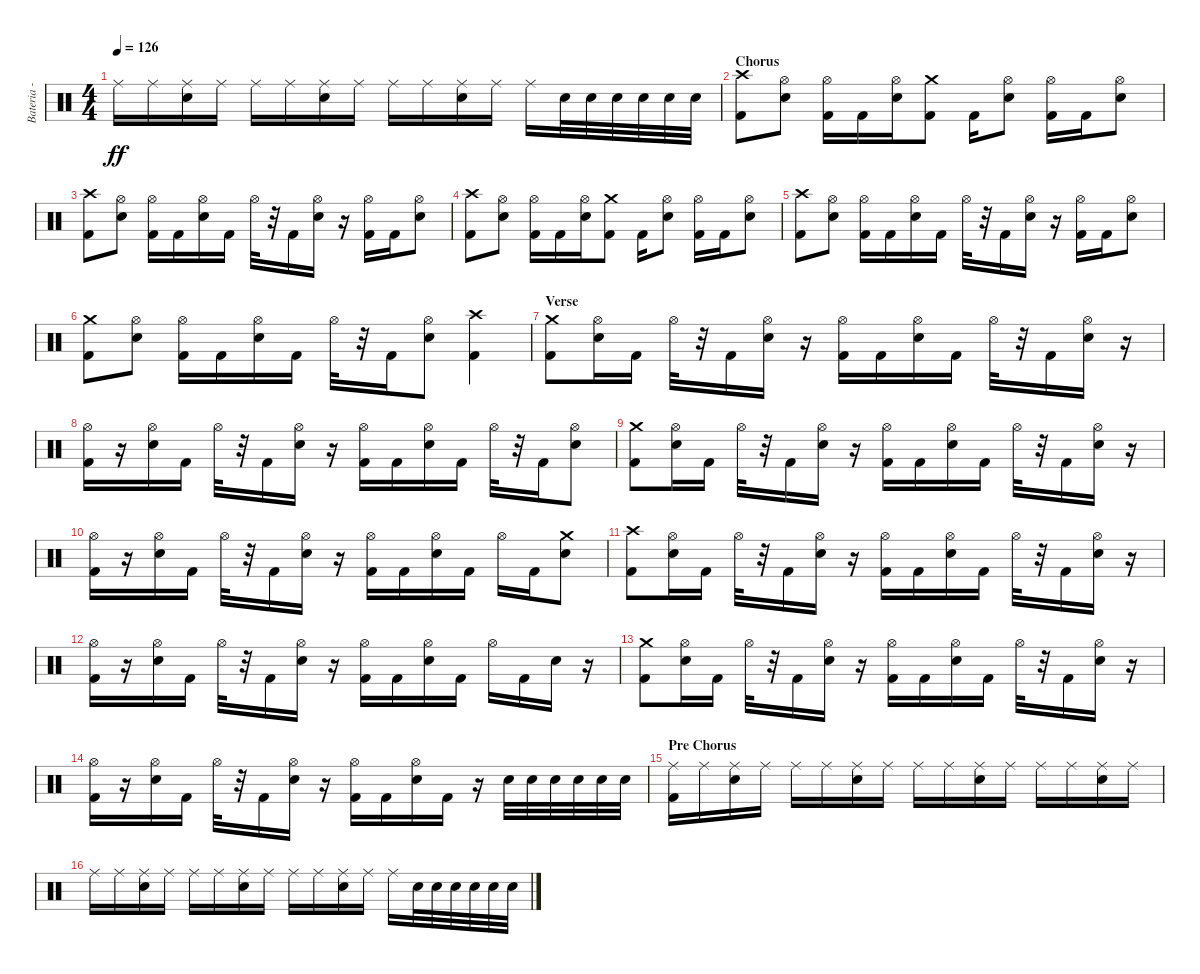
\track ("Bateria - Larzon" "Bateria - ") {instrument percussion}
\staff {score}
\articulation defaults
\ts (4 4)
\tempo 126
\clef neutral
\ks c "Ride (middle)".16{dy ff} "Ride (middle)".16
("Electric Snare (hit)" "Ride (middle)").16 "Ride (middle)".16 "Ride (middle)".16 "Ride (middle)".16 ("Electric Snare (hit)" "Ride (middle)").16 "Ride (middle)".16 "Ride (middle)".16 "Ride (middle)".16 ("Electric Snare (hit)" "Ride (middle)").16 "Ride (middle)".16 "Ride (middle)".16 "Electric Snare (hit)".32 "Electric Snare (hit)".32 "Electric Snare (hit)".32 "Electric Snare (hit)".32 "Electric Snare (hit)".32 "Electric Snare (hit)".32 |
\section ("" "Chorus")
("Kick (hit) 2" "Crash high (hit)").8 ("Electric Snare (hit)" "Hi-Hat (open)").8 ("Kick (hit) 2" "Hi-Hat (open)").16 "Kick (hit) 2".16 ("Electric Snare (hit)" "Hi-Hat (open)").16 ("Kick (hit) 2" "Crash medium (hit)").8 "Kick (hit) 2".16 ("Electric Snare (hit)" "Hi-Hat (open)").8 ("Kick (hit) 2" "Hi-Hat (open)").16 "Kick (hit) 2".16 ("Electric Snare (hit)" "Hi-Hat (open)").8 |
("Kick (hit) 2" "Crash high (hit)").8 ("Electric Snare (hit)" "Hi-Hat (open)").8 ("Kick (hit) 2" "Hi-Hat (open)").16 "Kick (hit) 2".16 ("Electric Snare (hit)" "Hi-Hat (open)").16 "Kick (hit) 2".16 "Hi-Hat (open)".32 r.32 "Kick (hit) 2".16 ("Electric Snare (hit)" "Hi-Hat (open)").16 r.16 ("Kick (hit) 2" "Hi-Hat (open)").16 "Kick (hit) 2".16 ("Electric Snare (hit)" "Hi-Hat (open)").8 |
("Kick (hit) 2" "Crash high (hit)").8 ("Electric Snare (hit)" "Hi-Hat (open)").8 ("Kick (hit) 2" "Hi-Hat (open)").16 "Kick (hit) 2".16 ("Electric Snare (hit)" "Hi-Hat (open)").16 ("Kick (hit) 2" "Crash medium (hit)").8 "Kick (hit) 2".16 ("Electric Snare (hit)" "Hi-Hat (open)").8 ("Kick (hit) 2" "Hi-Hat (open)").16 "Kick (hit) 2".16 ("Electric Snare (hit)" "Hi-Hat (open)").8 |
("Kick (hit) 2" "Crash high (hit)").8 ("Electric Snare (hit)" "Hi-Hat (open)").8 ("Kick (hit) 2" "Hi-Hat (open)").16 "Kick (hit) 2".16 ("Electric Snare (hit)" "Hi-Hat (open)").16 "Kick (hit) 2".16 "Hi-Hat (open)".32 r.32 "Kick (hit) 2".16 ("Electric Snare (hit)" "Hi-Hat (open)").16 r.16 ("Kick (hit) 2" "Hi-Hat (open)").16 "Kick (hit) 2".16 ("Electric Snare (hit)" "Hi-Hat (open)").8 |
("Kick (hit) 2" "Crash medium (hit)").8 ("Electric Snare (hit)" "Hi-Hat (open)").8 ("Kick (hit) 2" "Hi-Hat (open)").16 "Kick (hit) 2".16 ("Electric Snare (hit)" "Hi-Hat (open)").16 "Kick (hit) 2".16 "Hi-Hat (open)".32 r.32 "Kick (hit) 2".16 ("Electric Snare (hit)" "Hi-Hat (open)").8 ("Kick (hit) 2" "Crash high (hit)").4 |
\section ("" "Verse")
("Kick (hit) 2" "Crash medium (hit)").8 ("Electric Snare (hit)" "Hi-Hat (open)").16 "Kick (hit) 2".16 "Hi-Hat (open)".32 r.32 "Kick (hit) 2".16 ("Electric Snare (hit)" "Hi-Hat (open)").16 r.16 ("Kick (hit) 2" "Hi-Hat (open)").16 "Kick (hit) 2".16 ("Electric Snare (hit)" "Hi-Hat (open)").16 "Kick (hit) 2".16 "Hi-Hat (open)".32 r.32 "Kick (hit) 2".16 ("Electric Snare (hit)" "Hi-Hat (open)").16 r.16 |
("Kick (hit) 2" "Hi-Hat (open)").16 r.16 ("Electric Snare (hit)" "Hi-Hat (open)").16 "Kick (hit) 2".16 "Hi-Hat (open)".32 r.32 "Kick (hit) 2".16 ("Electric Snare (hit)" "Hi-Hat (open)").16 r.16 ("Kick (hit) 2" "Hi-Hat (open)").16 "Kick (hit) 2".16 ("Electric Snare (hit)" "Hi-Hat (open)").16 "Kick (hit) 2".16 "Hi-Hat (open)".32 r.32 "Kick (hit) 2".16 ("Electric Snare (hit)" "Hi-Hat (open)").8 |
("Kick (hit) 2" "Crash medium (hit)").8 ("Electric Snare (hit)" "Hi-Hat (open)").16 "Kick (hit) 2".16 "Hi-Hat (open)".32 r.32 "Kick (hit) 2".16 ("Electric Snare (hit)" "Hi-Hat (open)").16 r.16 ("Kick (hit) 2" "Hi-Hat (open)").16 "Kick (hit) 2".16 ("Electric Snare (hit)" "Hi-Hat (open)").16 "Kick (hit) 2".16 "Hi-Hat (open)".32 r.32 "Kick (hit) 2".16 ("Electric Snare (hit)" "Hi-Hat (open)").16 r.16 |
("Kick (hit) 2" "Hi-Hat (open)").16 r.16 ("Electric Snare (hit)" "Hi-Hat (open)").16 "Kick (hit) 2".16 "Hi-Hat (open)".32 r.32 "Kick (hit) 2".16 ("Electric Snare (hit)" "Hi-Hat (open)").16 r.16 ("Kick (hit) 2" "Hi-Hat (open)").16 "Kick (hit) 2".16 ("Electric Snare (hit)" "Hi-Hat (open)").16 "Kick (hit) 2".16 "Hi-Hat (open)".16 "Kick (hit) 2".16 ("Electric Snare (hit)" "Crash medium (hit)").8 |
("Crash high (hit)" "Kick (hit) 2").8 ("Electric Snare (hit)" "Hi-Hat (open)").16 "Kick (hit) 2".16 "Hi-Hat (open)".32 r.32 "Kick (hit) 2".16 ("Electric Snare (hit)" "Hi-Hat (open)").16 r.16 ("Kick (hit) 2" "Hi-Hat (open)").16 "Kick (hit) 2".16 ("Electric Snare (hit)" "Hi-Hat (open)").16 "Kick (hit) 2".16 "Hi-Hat (open)".32 r.32 "Kick (hit) 2".16 ("Electric Snare (hit)" "Hi-Hat (open)").16 r.16 |
("Kick (hit) 2" "Hi-Hat (open)").16 r.16 ("Electric Snare (hit)" "Hi-Hat (open)").16 "Kick (hit) 2".16 "Hi-Hat (open)".32 r.32 "Kick (hit) 2".16 ("Electric Snare (hit)" "Hi-Hat (open)").16 r.16 ("Kick (hit) 2" "Hi-Hat (open)").16 "Kick (hit) 2".16 ("Electric Snare (hit)" "Hi-Hat (open)").16 "Kick (hit) 2".16 "Hi-Hat (open)".16 "Kick (hit) 2".16 "Electric Snare (hit)".16 r.16 |
("Kick (hit) 2" "Crash medium (hit)").8 ("Electric Snare (hit)" "Hi-Hat (open)").16 "Kick (hit) 2".16 "Hi-Hat (open)".32 r.32 "Kick (hit) 2".16 ("Electric Snare (hit)" "Hi-Hat (open)").16 r.16 ("Kick (hit) 2" "Hi-Hat (open)").16 "Kick (hit) 2".16 ("Electric Snare (hit)" "Hi-Hat (open)").16 "Kick (hit) 2".16 "Hi-Hat (open)".32 r.32 "Kick (hit) 2".16 ("Electric Snare (hit)" "Hi-Hat (open)").16 r.16 |
("Kick (hit) 2" "Hi-Hat (open)").16 r.16 ("Electric Snare (hit)" "Hi-Hat (open)").16 "Kick (hit) 2".16 "Hi-Hat (open)".32 r.32 "Kick (hit) 2".16 ("Electric Snare (hit)" "Hi-Hat (open)").16 r.16 ("Kick (hit) 2" "Hi-Hat (open)").16 "Kick (hit) 2".16 ("Electric Snare (hit)" "Hi-Hat (open)").16 "Kick (hit) 2".16 r.16 "Electric Snare (hit)".32 "Electric Snare (hit)".32 "Electric Snare (hit)".32 "Electric Snare (hit)".32 "Electric Snare (hit)".32 "Electric Snare (hit)".32 |
\section ("" "Pre Chorus")
("Kick (hit) 2" "Ride (middle)").16 "Ride (middle)".16 ("Electric Snare (hit)" "Ride (middle)").16 "Ride (middle)".16 "Ride (middle)".16 "Ride (middle)".16 ("Electric Snare (hit)" "Ride (middle)").16 "Ride (middle)".16 "Ride (middle)".16 "Ride (middle)".16 ("Electric Snare (hit)" "Ride (middle)").16 "Ride (middle)".16 "Ride (middle)".16 "Ride (middle)".16 ("Electric Snare (hit)" "Ride (middle)").16 "Ride (middle)".16 |
"Ride (middle)".16 "Ride (middle)".16 ("Electric Snare (hit)" "Ride (middle)").16 "Ride (middle)".16 "Ride (middle)".16 "Ride (middle)".16 ("Electric Snare (hit)" "Ride (middle)").16 "Ride (middle)".16 "Ride (middle)".16 "Ride (middle)".16 ("Electric Snare (hit)" "Ride (middle)").16 "Ride (middle)".16 "Ride (middle)".16 "Electric Snare (hit)".32 "Electric Snare (hit)".32 "Electric Snare (hit)".32 "Electric Snare (hit)".32 "Electric Snare (hit)".32 "Electric Snare (hit)".32
